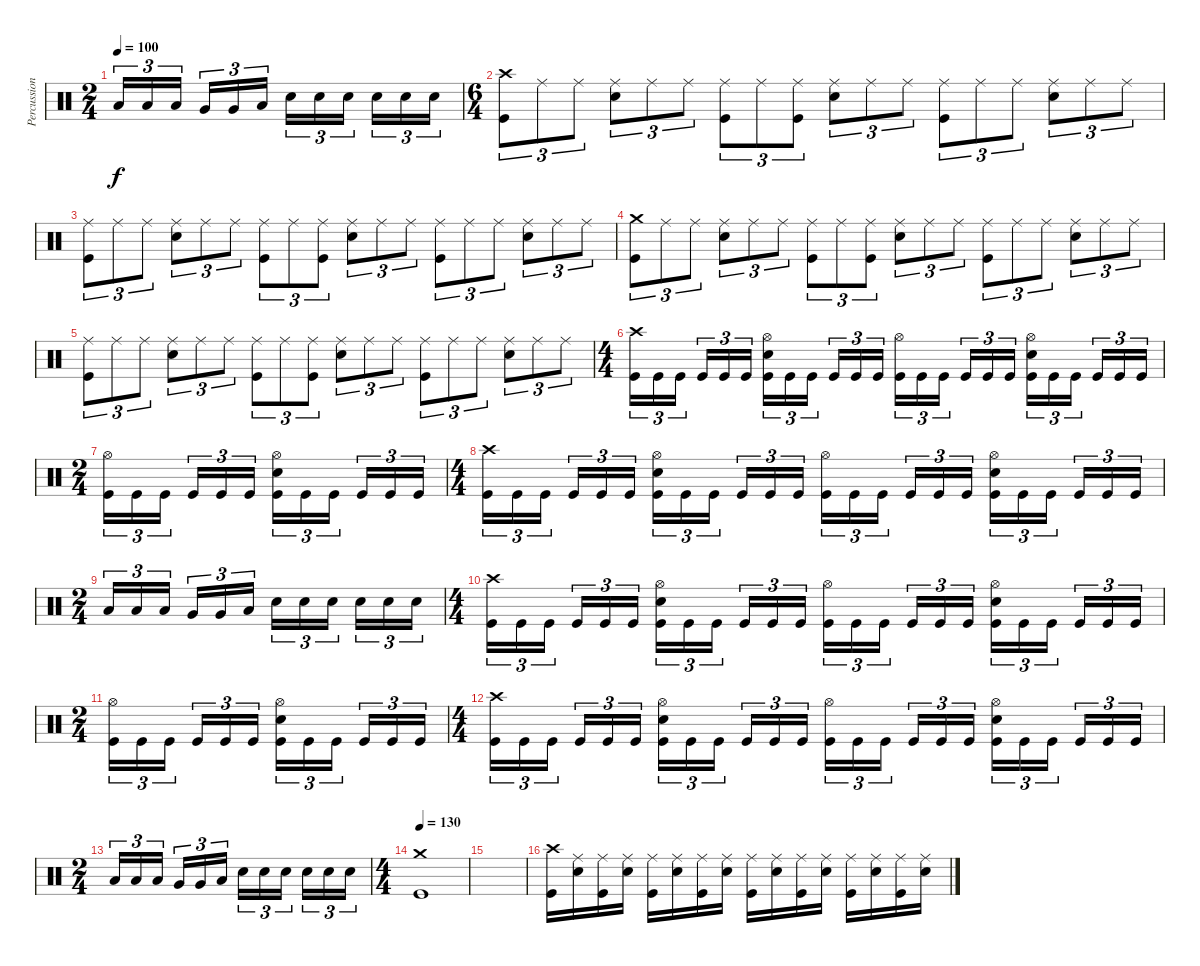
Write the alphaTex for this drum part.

\track ("Percussion" "Percussion") {instrument percussion}
\staff {score}
\articulation defaults
\ts (2 4)
\tempo 100
\clef neutral
\ks c "Low Tom (hit)".16{tu (3 2) dy f} "Low Tom (hit)".16{tu (3 2)} "Low Tom (hit)".16{tu (3 2) beam splitsecondary} "Very Low Tom (hit)".16{tu (3 2)} "Very Low Tom (hit)".16{tu (3 2)} "Low Floor Tom (hit)".16{tu (3 2)} "Snare (hit) 2".16{tu (3 2)} "Snare (hit) 2".16{tu (3 2)} "Snare (hit) 2".16{tu (3 2) beam splitsecondary} "Snare (hit) 2".16{tu (3 2)} "Snare (hit) 2".16{tu (3 2)} "Snare (hit) 2".16{tu (3 2)}
|
\ts (6 4)
("Crash high (hit)" "Kick (hit)").8{tu (3 2)} "Ride (middle)".8{tu (3 2)} "Ride (middle)".8{tu (3 2)} ("Ride (middle)" "Snare (hit) 2").8{tu (3 2)} "Ride (middle)".8{tu (3 2)} "Ride (middle)".8{tu (3 2)} ("Ride (middle)" "Kick (hit)").8{tu (3 2)} "Ride (middle)".8{tu (3 2)} ("Ride (middle)" "Kick (hit)").8{tu (3 2)} ("Ride (middle)" "Snare (hit) 2").8{tu (3 2)} "Ride (middle)".8{tu (3 2)} "Ride (middle)".8{tu (3 2)} ("Ride (middle)" "Kick (hit)").8{tu (3 2)} "Ride (middle)".8{tu (3 2)} "Ride (middle)".8{tu (3 2)} ("Ride (middle)" "Snare (hit) 2").8{tu (3 2)} "Ride (middle)".8{tu (3 2)} "Ride (middle)".8{tu (3 2)} |
("Ride (middle)" "Kick (hit)").8{tu (3 2)} "Ride (middle)".8{tu (3 2)} "Ride (middle)".8{tu (3 2)} ("Ride (middle)" "Snare (hit) 2").8{tu (3 2)} "Ride (middle)".8{tu (3 2)} "Ride (middle)".8{tu (3 2)} ("Ride (middle)" "Kick (hit)").8{tu (3 2)} "Ride (middle)".8{tu (3 2)} ("Ride (middle)" "Kick (hit)").8{tu (3 2)} ("Ride (middle)" "Snare (hit) 2").8{tu (3 2)} "Ride (middle)".8{tu (3 2)} "Ride (middle)".8{tu (3 2)} ("Ride (middle)" "Kick (hit)").8{tu (3 2)} "Ride (middle)".8{tu (3 2)} "Ride (middle)".8{tu (3 2)} ("Ride (middle)" "Snare (hit) 2").8{tu (3 2)} "Ride (middle)".8{tu (3 2)} "Ride (middle)".8{tu (3 2)} |
("Crash medium (hit)" "Kick (hit)").8{tu (3 2)} "Ride (middle)".8{tu (3 2)} "Ride (middle)".8{tu (3 2)} ("Ride (middle)" "Snare (hit) 2").8{tu (3 2)} "Ride (middle)".8{tu (3 2)} "Ride (middle)".8{tu (3 2)} ("Ride (middle)" "Kick (hit)").8{tu (3 2)} "Ride (middle)".8{tu (3 2)} ("Ride (middle)" "Kick (hit)").8{tu (3 2)} ("Ride (middle)" "Snare (hit) 2").8{tu (3 2)} "Ride (middle)".8{tu (3 2)} "Ride (middle)".8{tu (3 2)} ("Ride (middle)" "Kick (hit)").8{tu (3 2)} "Ride (middle)".8{tu (3 2)} "Ride (middle)".8{tu (3 2)} ("Ride (middle)" "Snare (hit) 2").8{tu (3 2)} "Ride (middle)".8{tu (3 2)} "Ride (middle)".8{tu (3 2)} |
("Ride (middle)" "Kick (hit)").8{tu (3 2)} "Ride (middle)".8{tu (3 2)} "Ride (middle)".8{tu (3 2)} ("Ride (middle)" "Snare (hit) 2").8{tu (3 2)} "Ride (middle)".8{tu (3 2)} "Ride (middle)".8{tu (3 2)} ("Ride (middle)" "Kick (hit)").8{tu (3 2)} "Ride (middle)".8{tu (3 2)} ("Ride (middle)" "Kick (hit)").8{tu (3 2)} ("Ride (middle)" "Snare (hit) 2").8{tu (3 2)} "Ride (middle)".8{tu (3 2)} "Ride (middle)".8{tu (3 2)} ("Ride (middle)" "Kick (hit)").8{tu (3 2)} "Ride (middle)".8{tu (3 2)} "Ride (middle)".8{tu (3 2)} ("Ride (middle)" "Snare (hit) 2").8{tu (3 2)} "Ride (middle)".8{tu (3 2)} "Ride (middle)".8{tu (3 2)} |
\ts (4 4)
("Crash high (hit)" "Kick (hit)").16{tu (3 2)} "Kick (hit)".16{tu (3 2)} "Kick (hit)".16{tu (3 2) beam splitsecondary} "Kick (hit)".16{tu (3 2)} "Kick (hit)".16{tu (3 2)} "Kick (hit)".16{tu (3 2)} ("Hi-Hat (open)" "Snare (hit) 2" "Kick (hit)").16{tu (3 2)} "Kick (hit)".16{tu (3 2)} "Kick (hit)".16{tu (3 2) beam splitsecondary} "Kick (hit)".16{tu (3 2)} "Kick (hit)".16{tu (3 2)} "Kick (hit)".16{tu (3 2)} ("Hi-Hat (open)" "Kick (hit)").16{tu (3 2)} "Kick (hit)".16{tu (3 2)} "Kick (hit)".16{tu (3 2) beam splitsecondary} "Kick (hit)".16{tu (3 2)} "Kick (hit)".16{tu (3 2)} "Kick (hit)".16{tu (3 2)} ("Hi-Hat (open)" "Snare (hit) 2" "Kick (hit)").16{tu (3 2)} "Kick (hit)".16{tu (3 2)} "Kick (hit)".16{tu (3 2) beam splitsecondary} "Kick (hit)".16{tu (3 2)} "Kick (hit)".16{tu (3 2)} "Kick (hit)".16{tu (3 2)} |
\ts (2 4)
("Hi-Hat (open)" "Kick (hit)").16{tu (3 2)} "Kick (hit)".16{tu (3 2)} "Kick (hit)".16{tu (3 2) beam splitsecondary} "Kick (hit)".16{tu (3 2)} "Kick (hit)".16{tu (3 2)} "Kick (hit)".16{tu (3 2)} ("Hi-Hat (open)" "Snare (hit) 2" "Kick (hit)").16{tu (3 2)} "Kick (hit)".16{tu (3 2)} "Kick (hit)".16{tu (3 2) beam splitsecondary} "Kick (hit)".16{tu (3 2)} "Kick (hit)".16{tu (3 2)} "Kick (hit)".16{tu (3 2)} |
\ts (4 4)
("Crash high (hit)" "Kick (hit)").16{tu (3 2)} "Kick (hit)".16{tu (3 2)} "Kick (hit)".16{tu (3 2) beam splitsecondary} "Kick (hit)".16{tu (3 2)} "Kick (hit)".16{tu (3 2)} "Kick (hit)".16{tu (3 2)} ("Hi-Hat (open)" "Snare (hit) 2" "Kick (hit)").16{tu (3 2)} "Kick (hit)".16{tu (3 2)} "Kick (hit)".16{tu (3 2) beam splitsecondary} "Kick (hit)".16{tu (3 2)} "Kick (hit)".16{tu (3 2)} "Kick (hit)".16{tu (3 2)} ("Hi-Hat (open)" "Kick (hit)").16{tu (3 2)} "Kick (hit)".16{tu (3 2)} "Kick (hit)".16{tu (3 2) beam splitsecondary} "Kick (hit)".16{tu (3 2)} "Kick (hit)".16{tu (3 2)} "Kick (hit)".16{tu (3 2)} ("Hi-Hat (open)" "Snare (hit) 2" "Kick (hit)").16{tu (3 2)} "Kick (hit)".16{tu (3 2)} "Kick (hit)".16{tu (3 2) beam splitsecondary} "Kick (hit)".16{tu (3 2)} "Kick (hit)".16{tu (3 2)} "Kick (hit)".16{tu (3 2)} |
\ts (2 4)
"Low Tom (hit)".16{tu (3 2)} "Low Tom (hit)".16{tu (3 2)} "Low Tom (hit)".16{tu (3 2) beam splitsecondary} "Very Low Tom (hit)".16{tu (3 2)} "Very Low Tom (hit)".16{tu (3 2)} "Low Floor Tom (hit)".16{tu (3 2)} "Snare (hit) 2".16{tu (3 2)} "Snare (hit) 2".16{tu (3 2)} "Snare (hit) 2".16{tu (3 2) beam splitsecondary} "Snare (hit) 2".16{tu (3 2)} "Snare (hit) 2".16{tu (3 2)} "Snare (hit) 2".16{tu (3 2)} |
\ts (4 4)
("Crash high (hit)" "Kick (hit)").16{tu (3 2)} "Kick (hit)".16{tu (3 2)} "Kick (hit)".16{tu (3 2) beam splitsecondary} "Kick (hit)".16{tu (3 2)} "Kick (hit)".16{tu (3 2)} "Kick (hit)".16{tu (3 2)} ("Hi-Hat (open)" "Snare (hit) 2" "Kick (hit)").16{tu (3 2)} "Kick (hit)".16{tu (3 2)} "Kick (hit)".16{tu (3 2) beam splitsecondary} "Kick (hit)".16{tu (3 2)} "Kick (hit)".16{tu (3 2)} "Kick (hit)".16{tu (3 2)} ("Hi-Hat (open)" "Kick (hit)").16{tu (3 2)} "Kick (hit)".16{tu (3 2)} "Kick (hit)".16{tu (3 2) beam splitsecondary} "Kick (hit)".16{tu (3 2)} "Kick (hit)".16{tu (3 2)} "Kick (hit)".16{tu (3 2)} ("Hi-Hat (open)" "Snare (hit) 2" "Kick (hit)").16{tu (3 2)} "Kick (hit)".16{tu (3 2)} "Kick (hit)".16{tu (3 2) beam splitsecondary} "Kick (hit)".16{tu (3 2)} "Kick (hit)".16{tu (3 2)} "Kick (hit)".16{tu (3 2)} |
\ts (2 4)
("Hi-Hat (open)" "Kick (hit)").16{tu (3 2)} "Kick (hit)".16{tu (3 2)} "Kick (hit)".16{tu (3 2) beam splitsecondary} "Kick (hit)".16{tu (3 2)} "Kick (hit)".16{tu (3 2)} "Kick (hit)".16{tu (3 2)} ("Hi-Hat (open)" "Snare (hit) 2" "Kick (hit)").16{tu (3 2)} "Kick (hit)".16{tu (3 2)} "Kick (hit)".16{tu (3 2) beam splitsecondary} "Kick (hit)".16{tu (3 2)} "Kick (hit)".16{tu (3 2)} "Kick (hit)".16{tu (3 2)} |
\ts (4 4)
("Crash high (hit)" "Kick (hit)").16{tu (3 2)} "Kick (hit)".16{tu (3 2)} "Kick (hit)".16{tu (3 2) beam splitsecondary} "Kick (hit)".16{tu (3 2)} "Kick (hit)".16{tu (3 2)} "Kick (hit)".16{tu (3 2)} ("Hi-Hat (open)" "Snare (hit) 2" "Kick (hit)").16{tu (3 2)} "Kick (hit)".16{tu (3 2)} "Kick (hit)".16{tu (3 2) beam splitsecondary} "Kick (hit)".16{tu (3 2)} "Kick (hit)".16{tu (3 2)} "Kick (hit)".16{tu (3 2)} ("Hi-Hat (open)" "Kick (hit)").16{tu (3 2)} "Kick (hit)".16{tu (3 2)} "Kick (hit)".16{tu (3 2) beam splitsecondary} "Kick (hit)".16{tu (3 2)} "Kick (hit)".16{tu (3 2)} "Kick (hit)".16{tu (3 2)} ("Hi-Hat (open)" "Snare (hit) 2" "Kick (hit)").16{tu (3 2)} "Kick (hit)".16{tu (3 2)} "Kick (hit)".16{tu (3 2) beam splitsecondary} "Kick (hit)".16{tu (3 2)} "Kick (hit)".16{tu (3 2)} "Kick (hit)".16{tu (3 2)} |
\ts (2 4)
"Low Tom (hit)".16{tu (3 2)} "Low Tom (hit)".16{tu (3 2)} "Low Tom (hit)".16{tu (3 2) beam splitsecondary} "Very Low Tom (hit)".16{tu (3 2)} "Very Low Tom (hit)".16{tu (3 2)} "Low Floor Tom (hit)".16{tu (3 2)} "Snare (hit) 2".16{tu (3 2)} "Snare (hit) 2".16{tu (3 2)} "Snare (hit) 2".16{tu (3 2) beam splitsecondary} "Snare (hit) 2".16{tu (3 2)} "Snare (hit) 2".16{tu (3 2)} "Snare (hit) 2".16{tu (3 2)} |
\ts (4 4)
\tempo 130
("Crash medium (hit)" "Kick (hit)").1 |
|
("Crash high (hit)" "Kick (hit)").16 ("Ride (middle)" "Snare (hit) 2").16 ("Ride (middle)" "Kick (hit)").16 ("Ride (middle)" "Snare (hit) 2").16 ("Ride (middle)" "Kick (hit)").16 ("Ride (middle)" "Snare (hit) 2").16 ("Ride (middle)" "Kick (hit)").16 ("Ride (middle)" "Snare (hit) 2").16 ("Ride (middle)" "Kick (hit)").16 ("Ride (middle)" "Snare (hit) 2").16 ("Ride (middle)" "Kick (hit)").16 ("Ride (middle)" "Snare (hit) 2").16 ("Ride (middle)" "Kick (hit)").16 ("Ride (middle)" "Snare (hit) 2").16 ("Ride (middle)" "Kick (hit)").16 ("Ride (middle)" "Snare (hit) 2").16
